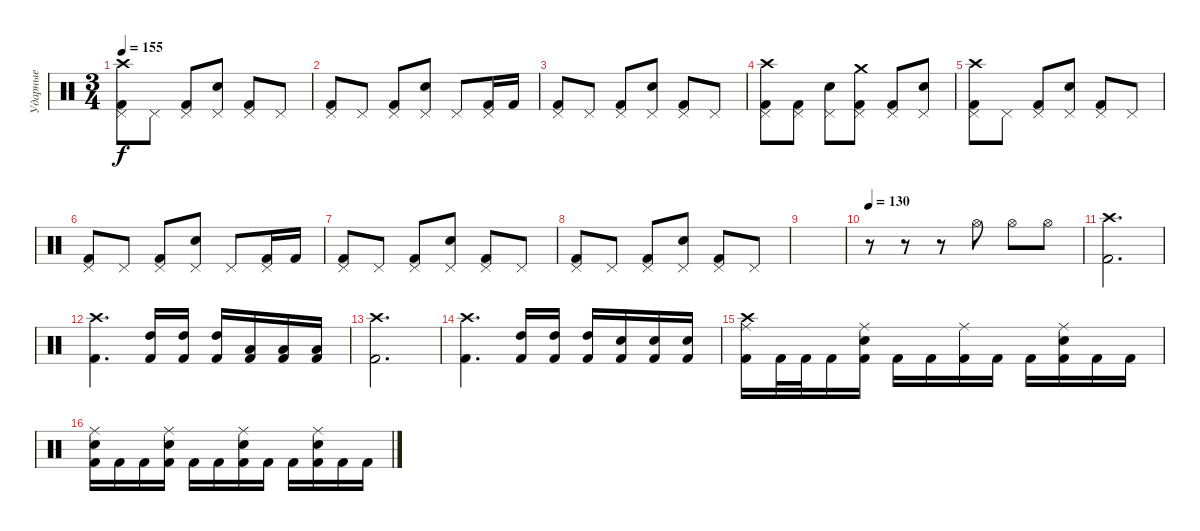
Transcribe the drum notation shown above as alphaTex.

\track ("Ударные" "Ударные") {instrument percussion}
\staff {score}
\articulation defaults
\ts (3 4)
\tempo 155
\clef neutral
\ks c
("Crash high (hit)" "Pedal Hi-Hat (hit)" "Kick (hit) 2").8{dy f} "Pedal Hi-Hat (hit)".8 ("Pedal Hi-Hat (hit)" "Kick (hit) 2").8 ("Snare (hit) 2" "Pedal Hi-Hat (hit)").8 ("Pedal Hi-Hat (hit)" "Kick (hit) 2").8 "Pedal Hi-Hat (hit)".8 |
("Pedal Hi-Hat (hit)" "Kick (hit) 2").8 "Pedal Hi-Hat (hit)".8 ("Pedal Hi-Hat (hit)" "Kick (hit) 2").8 ("Snare (hit) 2" "Pedal Hi-Hat (hit)").8 "Pedal Hi-Hat (hit)".8 ("Pedal Hi-Hat (hit)" "Kick (hit) 2").16 "Kick (hit) 2".16 |
("Pedal Hi-Hat (hit)" "Kick (hit) 2").8 "Pedal Hi-Hat (hit)".8 ("Pedal Hi-Hat (hit)" "Kick (hit) 2").8 ("Snare (hit) 2" "Pedal Hi-Hat (hit)").8 ("Pedal Hi-Hat (hit)" "Kick (hit) 2").8 "Pedal Hi-Hat (hit)".8 |
("Crash high (hit)" "Pedal Hi-Hat (hit)" "Kick (hit) 2").8 ("Pedal Hi-Hat (hit)" "Kick (hit) 2").8 ("Pedal Hi-Hat (hit)" "Snare (hit) 2").8 ("Crash medium (hit)" "Pedal Hi-Hat (hit)" "Kick (hit) 2").8 ("Pedal Hi-Hat (hit)" "Kick (hit) 2").8 ("Pedal Hi-Hat (hit)" "Snare (hit) 2").8 |
("Crash high (hit)" "Pedal Hi-Hat (hit)" "Kick (hit) 2").8 "Pedal Hi-Hat (hit)".8 ("Pedal Hi-Hat (hit)" "Kick (hit) 2").8 ("Snare (hit) 2" "Pedal Hi-Hat (hit)").8 ("Pedal Hi-Hat (hit)" "Kick (hit) 2").8 "Pedal Hi-Hat (hit)".8 |
("Pedal Hi-Hat (hit)" "Kick (hit) 2").8 "Pedal Hi-Hat (hit)".8 ("Pedal Hi-Hat (hit)" "Kick (hit) 2").8 ("Snare (hit) 2" "Pedal Hi-Hat (hit)").8 "Pedal Hi-Hat (hit)".8 ("Pedal Hi-Hat (hit)" "Kick (hit) 2").16 "Kick (hit) 2".16 |
("Pedal Hi-Hat (hit)" "Kick (hit) 2").8 "Pedal Hi-Hat (hit)".8 ("Pedal Hi-Hat (hit)" "Kick (hit) 2").8 ("Snare (hit) 2" "Pedal Hi-Hat (hit)").8 ("Pedal Hi-Hat (hit)" "Kick (hit) 2").8 "Pedal Hi-Hat (hit)".8 |
("Pedal Hi-Hat (hit)" "Kick (hit) 2").8 "Pedal Hi-Hat (hit)".8 ("Pedal Hi-Hat (hit)" "Kick (hit) 2").8 ("Snare (hit) 2" "Pedal Hi-Hat (hit)").8 ("Pedal Hi-Hat (hit)" "Kick (hit) 2").8 "Pedal Hi-Hat (hit)".8 |
|
\tempo 130
r.8 r.8 r.8 "Hi-Hat (open)".8 "Hi-Hat (open)".8 "Hi-Hat (open)".8 |
("Kick (hit) 2" "Crash high (hit)").2{d} |
("Kick (hit) 2" "Crash high (hit)").4{d} ("Kick (hit) 2" "High Tom (hit)").16 ("Kick (hit) 2" "High Tom (hit)").16 ("Kick (hit) 2" "High Tom (hit)").16 ("Kick (hit) 2" "Low Tom (hit)").16 ("Kick (hit) 2" "Low Tom (hit)").16 ("Kick (hit) 2" "Low Floor Tom (hit)").16 |
("Kick (hit) 2" "Crash high (hit)").2{d} |
("Kick (hit) 2" "Crash high (hit)").4{d} ("Kick (hit) 2" "High Tom (hit)").16 ("Kick (hit) 2" "High Tom (hit)").16 ("Kick (hit) 2" "High Tom (hit)").16 ("Kick (hit) 2" "Snare (hit) 2").16 ("Kick (hit) 2" "Snare (hit) 2").16 ("Kick (hit) 2" "Snare (hit) 2").16 |
("Kick (hit) 2" "Ride (middle)" "Crash high (hit)").16 "Kick (hit) 2".32 "Kick (hit) 2".32 "Kick (hit) 2".16 ("Kick (hit) 2" "Snare (hit) 2" "Ride (middle)").16 "Kick (hit) 2".16 "Kick (hit) 2".16 ("Kick (hit) 2" "Ride (middle)").16 "Kick (hit) 2".16 "Kick (hit) 2".16 ("Kick (hit) 2" "Snare (hit) 2" "Ride (middle)").16 "Kick (hit) 2".16 "Kick (hit) 2".16 |
("Kick (hit) 2" "Snare (hit) 2" "Ride (middle)").16 "Kick (hit) 2".16 "Kick (hit) 2".16 ("Kick (hit) 2" "Snare (hit) 2" "Ride (middle)").16 "Kick (hit) 2".16 "Kick (hit) 2".16 ("Kick (hit) 2" "Snare (hit) 2" "Ride (middle)").16 "Kick (hit) 2".16 "Kick (hit) 2".16 ("Kick (hit) 2" "Snare (hit) 2" "Ride (middle)").16 "Kick (hit) 2".16 "Kick (hit) 2".16
